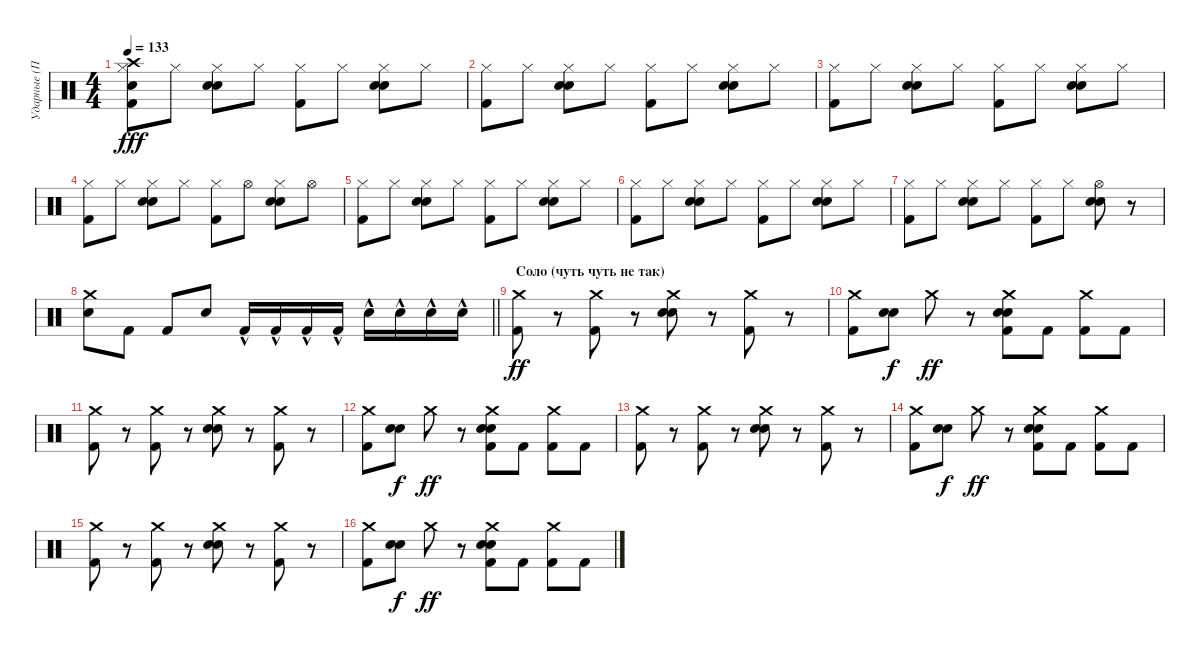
\track ("Ударные (Пацан в Дредах)" "Ударные (П") {instrument percussion}
\staff {score}
\articulation defaults
\ts (4 4)
\tempo 133
\clef neutral
\ks c
("Crash high (hit)" "Hi-Hat (closed)" "Snare (hit)" "Kick (hit) 2").8{dy fff} "Hi-Hat (closed)".8 ("Hi-Hat (closed)" "Electric Snare (hit)" "Hand Clap (hit)").8 "Hi-Hat (closed)".8 ("Hi-Hat (closed)" "Kick (hit) 2").8 "Hi-Hat (closed)".8 ("Hi-Hat (closed)" "Electric Snare (hit)" "Hand Clap (hit)").8 "Hi-Hat (closed)".8 |
("Hi-Hat (closed)" "Kick (hit) 2").8 "Hi-Hat (closed)".8 ("Hi-Hat (closed)" "Electric Snare (hit)" "Hand Clap (hit)").8 "Hi-Hat (closed)".8 ("Hi-Hat (closed)" "Kick (hit) 2").8 "Hi-Hat (closed)".8 ("Hi-Hat (closed)" "Electric Snare (hit)" "Hand Clap (hit)").8 "Hi-Hat (closed)".8 |
("Hi-Hat (closed)" "Kick (hit) 2").8 "Hi-Hat (closed)".8 ("Hi-Hat (closed)" "Electric Snare (hit)" "Hand Clap (hit)").8 "Hi-Hat (closed)".8 ("Hi-Hat (closed)" "Kick (hit) 2").8 "Hi-Hat (closed)".8 ("Hi-Hat (closed)" "Electric Snare (hit)" "Hand Clap (hit)").8 "Hi-Hat (closed)".8 |
("Hi-Hat (closed)" "Kick (hit) 2").8 "Hi-Hat (closed)".8 ("Hi-Hat (closed)" "Electric Snare (hit)" "Hand Clap (hit)").8 "Hi-Hat (closed)".8 ("Hi-Hat (closed)" "Kick (hit) 2").8 "Hi-Hat (open)".8 ("Hi-Hat (closed)" "Electric Snare (hit)" "Hand Clap (hit)").8 "Hi-Hat (open)".8 |
("Hi-Hat (closed)" "Kick (hit) 2").8 "Hi-Hat (closed)".8 ("Hi-Hat (closed)" "Electric Snare (hit)" "Hand Clap (hit)").8 "Hi-Hat (closed)".8 ("Hi-Hat (closed)" "Kick (hit) 2").8 "Hi-Hat (closed)".8 ("Hi-Hat (closed)" "Electric Snare (hit)" "Hand Clap (hit)").8 "Hi-Hat (closed)".8 |
("Hi-Hat (closed)" "Kick (hit) 2").8 "Hi-Hat (closed)".8 ("Hi-Hat (closed)" "Electric Snare (hit)" "Hand Clap (hit)").8 "Hi-Hat (closed)".8 ("Hi-Hat (closed)" "Kick (hit) 2").8 "Hi-Hat (closed)".8 ("Hi-Hat (closed)" "Electric Snare (hit)" "Hand Clap (hit)").8 "Hi-Hat (closed)".8 |
("Hi-Hat (closed)" "Kick (hit) 2").8 "Hi-Hat (closed)".8 ("Hi-Hat (closed)" "Electric Snare (hit)" "Hand Clap (hit)").8 "Hi-Hat (closed)".8 ("Hi-Hat (closed)" "Kick (hit) 2").8 "Hi-Hat (closed)".8 ("Hi-Hat (open)" "Electric Snare (hit)" "Hand Clap (hit)").8 r.8 |
\barLineRight lightlight
("Crash medium (hit)" "Electric Snare (hit)").8 "Kick (hit) 2".8 "Kick (hit) 2".8 "Electric Snare (hit)".8 "Kick (hit) 2"{hac}.16 "Kick (hit) 2"{hac}.16 "Kick (hit) 2"{hac}.16 "Kick (hit) 2"{hac}.16 "Electric Snare (hit)"{hac}.16 "Electric Snare (hit)"{hac}.16 "Electric Snare (hit)"{hac}.16 "Electric Snare (hit)"{hac}.16 |
\section ("" " Соло (чуть чуть не так)")
("Crash medium (hit)" "Kick (hit) 2").8{dy ff} r.8 ("Crash medium (hit)" "Kick (hit) 2").8 r.8 ("Crash medium (hit)" "Hand Clap (hit)" "Electric Snare (hit)").8 r.8 ("Crash medium (hit)" "Kick (hit) 2").8 r.8 |
("Crash medium (hit)" "Kick (hit) 2").8 ("Hand Clap (hit)" "Electric Snare (hit)").8{dy f} "Crash medium (hit)".8{dy ff} r.8 ("Crash medium (hit)" "Hand Clap (hit)" "Electric Snare (hit)" "Kick (hit) 2").8 "Kick (hit) 2".8 ("Crash medium (hit)" "Kick (hit) 2").8 "Kick (hit) 2".8 |
("Crash medium (hit)" "Kick (hit) 2").8 r.8 ("Crash medium (hit)" "Kick (hit) 2").8 r.8 ("Crash medium (hit)" "Hand Clap (hit)" "Electric Snare (hit)").8 r.8 ("Crash medium (hit)" "Kick (hit) 2").8 r.8 |
("Crash medium (hit)" "Kick (hit) 2").8 ("Hand Clap (hit)" "Electric Snare (hit)").8{dy f} "Crash medium (hit)".8{dy ff} r.8 ("Crash medium (hit)" "Hand Clap (hit)" "Electric Snare (hit)" "Kick (hit) 2").8 "Kick (hit) 2".8 ("Crash medium (hit)" "Kick (hit) 2").8 "Kick (hit) 2".8 |
("Crash medium (hit)" "Kick (hit) 2").8 r.8 ("Crash medium (hit)" "Kick (hit) 2").8 r.8 ("Crash medium (hit)" "Hand Clap (hit)" "Electric Snare (hit)").8 r.8 ("Crash medium (hit)" "Kick (hit) 2").8 r.8 |
("Crash medium (hit)" "Kick (hit) 2").8 ("Hand Clap (hit)" "Electric Snare (hit)").8{dy f} "Crash medium (hit)".8{dy ff} r.8 ("Crash medium (hit)" "Hand Clap (hit)" "Electric Snare (hit)" "Kick (hit) 2").8 "Kick (hit) 2".8 ("Crash medium (hit)" "Kick (hit) 2").8 "Kick (hit) 2".8 |
("Crash medium (hit)" "Kick (hit) 2").8 r.8 ("Crash medium (hit)" "Kick (hit) 2").8 r.8 ("Crash medium (hit)" "Hand Clap (hit)" "Electric Snare (hit)").8 r.8 ("Crash medium (hit)" "Kick (hit) 2").8 r.8 |
("Crash medium (hit)" "Kick (hit) 2").8 ("Hand Clap (hit)" "Electric Snare (hit)").8{dy f} "Crash medium (hit)".8{dy ff} r.8 ("Crash medium (hit)" "Hand Clap (hit)" "Electric Snare (hit)" "Kick (hit) 2").8 "Kick (hit) 2".8 ("Crash medium (hit)" "Kick (hit) 2").8 "Kick (hit) 2".8
